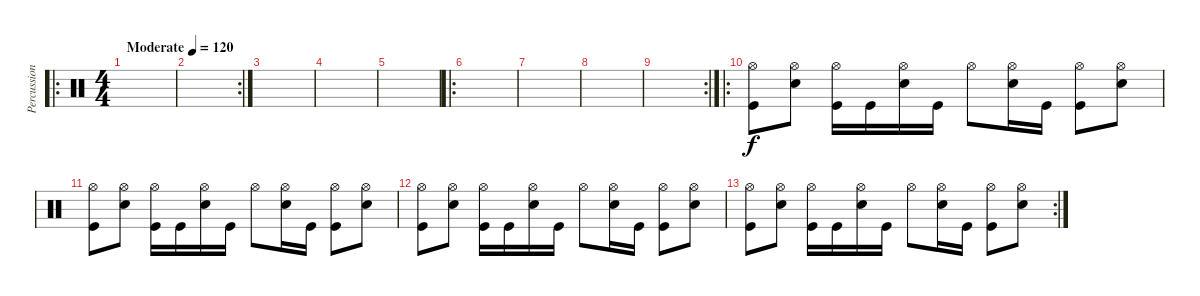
\track ("Percussion" "Percussion") {instrument percussion}
\staff {score}
\articulation defaults
\ro
\ts (4 4)
\tempo (120 "Moderate")
\clef neutral
\ks c
|
\rc 2
|
|
|
|
\ro
|
|
|
\rc 2
|
\ro
("Hi-Hat (open)" "Kick (hit)").8 ("Hi-Hat (open)" "Snare (hit) 2").8 ("Hi-Hat (open)" "Kick (hit)").16 "Kick (hit)".16 ("Hi-Hat (open)" "Snare (hit) 2").16 "Kick (hit)".16 "Hi-Hat (open)".8 ("Hi-Hat (open)" "Snare (hit) 2").16 "Kick (hit)".16 ("Hi-Hat (open)" "Kick (hit)").8 ("Hi-Hat (open)" "Snare (hit) 2").8 |
("Hi-Hat (open)" "Kick (hit)").8 ("Hi-Hat (open)" "Snare (hit) 2").8 ("Hi-Hat (open)" "Kick (hit)").16 "Kick (hit)".16 ("Hi-Hat (open)" "Snare (hit) 2").16 "Kick (hit)".16 "Hi-Hat (open)".8 ("Hi-Hat (open)" "Snare (hit) 2").16 "Kick (hit)".16 ("Hi-Hat (open)" "Kick (hit)").8 ("Hi-Hat (open)" "Snare (hit) 2").8 |
("Hi-Hat (open)" "Kick (hit)").8 ("Hi-Hat (open)" "Snare (hit) 2").8 ("Hi-Hat (open)" "Kick (hit)").16 "Kick (hit)".16 ("Hi-Hat (open)" "Snare (hit) 2").16 "Kick (hit)".16 "Hi-Hat (open)".8 ("Hi-Hat (open)" "Snare (hit) 2").16 "Kick (hit)".16 ("Hi-Hat (open)" "Kick (hit)").8 ("Hi-Hat (open)" "Snare (hit) 2").8 |
\rc 2
("Hi-Hat (open)" "Kick (hit)").8 ("Hi-Hat (open)" "Snare (hit) 2").8 ("Hi-Hat (open)" "Kick (hit)").16 "Kick (hit)".16 ("Hi-Hat (open)" "Snare (hit) 2").16 "Kick (hit)".16 "Hi-Hat (open)".8 ("Hi-Hat (open)" "Snare (hit) 2").16 "Kick (hit)".16 ("Hi-Hat (open)" "Kick (hit)").8 ("Hi-Hat (open)" "Snare (hit) 2").8
